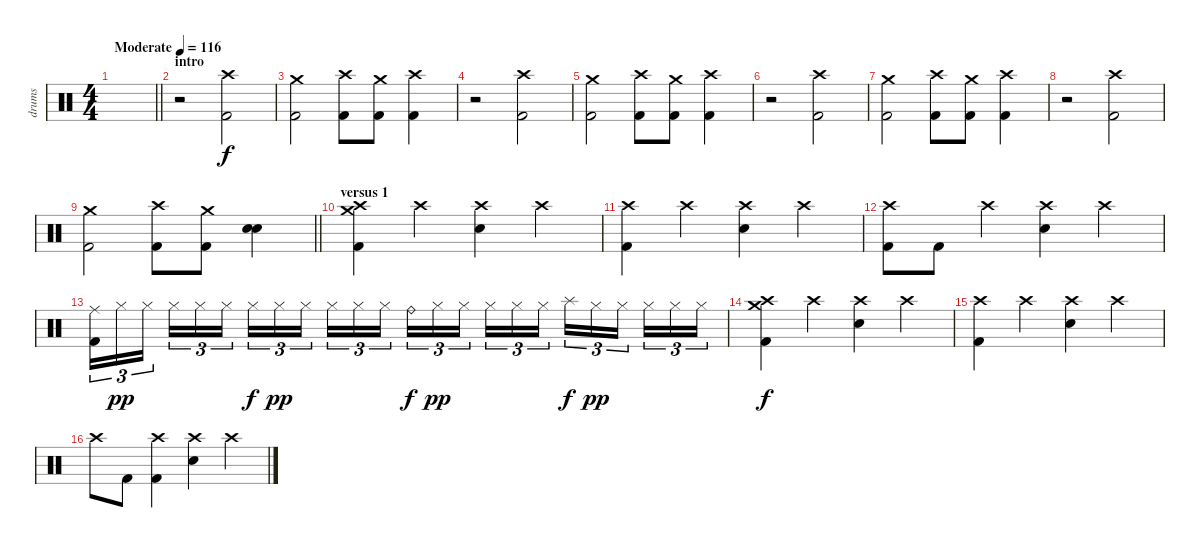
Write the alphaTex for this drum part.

\track ("drums" "drums") {instrument percussion}
\staff {score}
\articulation defaults
\ts (4 4)
\tempo (116 "Moderate")
\clef neutral
\barLineRight lightlight
\ks c
|
\section ("" "intro")
r.2 ("Kick (hit) 2" "Crash high (hit)").2 |
("Crash medium (hit)" "Kick (hit) 2").2 ("Kick (hit) 2" "Crash high (hit)").8 ("Kick (hit) 2" "Crash medium (hit)").8 ("Kick (hit) 2" "Crash high (hit)").4 |
r.2 ("Kick (hit) 2" "Crash high (hit)").2 |
("Crash medium (hit)" "Kick (hit) 2").2 ("Kick (hit) 2" "Crash high (hit)").8 ("Kick (hit) 2" "Crash medium (hit)").8 ("Kick (hit) 2" "Crash high (hit)").4 |
r.2 ("Kick (hit) 2" "Crash high (hit)").2 |
("Crash medium (hit)" "Kick (hit) 2").2 ("Kick (hit) 2" "Crash high (hit)").8 ("Kick (hit) 2" "Crash medium (hit)").8 ("Kick (hit) 2" "Crash high (hit)").4 |
r.2 ("Kick (hit) 2" "Crash high (hit)").2 |
\barLineRight lightlight
("Crash medium (hit)" "Kick (hit) 2").2 ("Kick (hit) 2" "Crash high (hit)").8 ("Kick (hit) 2" "Crash medium (hit)").8 ("Snare (hit) 2" "Snare (hit) 2").4 |
\section ("" "versus 1")
("Crash medium (hit)" "Crash high (hit)" "Kick (hit) 2").4 "Crash high (hit)".4 ("Crash high (hit)" "Snare (hit) 2").4 "Crash high (hit)".4 |
("Crash high (hit)" "Kick (hit) 2").4 "Crash high (hit)".4 ("Crash high (hit)" "Snare (hit) 2").4 "Crash high (hit)".4 |
("Crash high (hit)" "Kick (hit) 2").8 "Kick (hit) 2".8 "Crash high (hit)".4 ("Crash high (hit)" "Snare (hit) 2").4 "Crash high (hit)".4 |
("Ride (middle)" "Kick (hit) 2").16{tu (3 2)} "Hi-Hat (closed)".16{tu (3 2) dy pp} "Hi-Hat (closed)".16{tu (3 2) beam splitsecondary} "Hi-Hat (closed)".16{tu (3 2)} "Hi-Hat (closed)".16{tu (3 2)} "Hi-Hat (closed)".16{tu (3 2)} "Hi-Hat (closed)".16{tu (3 2) dy f} "Hi-Hat (closed)".16{tu (3 2) dy pp} "Hi-Hat (closed)".16{tu (3 2) beam splitsecondary} "Hi-Hat (closed)".16{tu (3 2)} "Hi-Hat (closed)".16{tu (3 2)} "Hi-Hat (closed)".16{tu (3 2)} "Ride (bell)".16{tu (3 2) dy f} "Hi-Hat (closed)".16{tu (3 2) dy pp} "Hi-Hat (closed)".16{tu (3 2) beam splitsecondary} "Hi-Hat (closed)".16{tu (3 2)} "Hi-Hat (closed)".16{tu (3 2)} "Hi-Hat (closed)".16{tu (3 2)} "Splash (hit)".16{tu (3 2) dy f} "Hi-Hat (closed)".16{tu (3 2) dy pp} "Hi-Hat (closed)".16{tu (3 2) beam splitsecondary} "Hi-Hat (closed)".16{tu (3 2)} "Hi-Hat (closed)".16{tu (3 2)} "Hi-Hat (closed)".16{tu (3 2)} |
("Crash medium (hit)" "Crash high (hit)" "Kick (hit) 2").4{dy f} "Crash high (hit)".4 ("Crash high (hit)" "Snare (hit) 2").4 "Crash high (hit)".4 |
("Crash high (hit)" "Kick (hit) 2").4 "Crash high (hit)".4 ("Crash high (hit)" "Snare (hit) 2").4 "Crash high (hit)".4 |
"Crash high (hit)".8 "Kick (hit) 2".8 ("Crash high (hit)" "Kick (hit) 2").4 ("Crash high (hit)" "Snare (hit) 2").4 "Crash high (hit)".4
